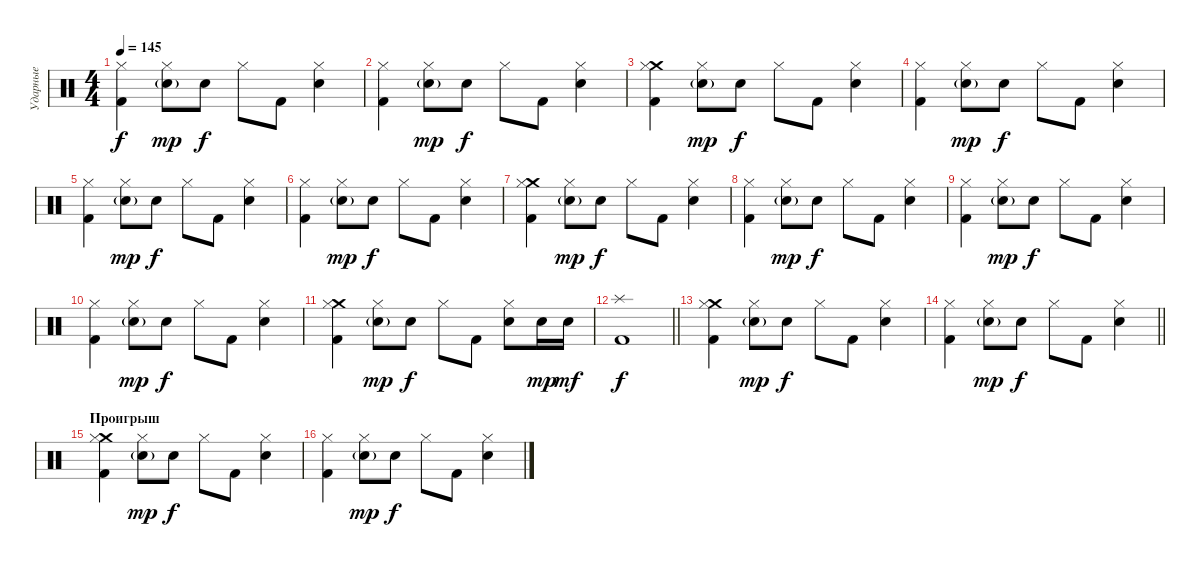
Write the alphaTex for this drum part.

\track ("Ударные" "Ударные") {instrument percussion}
\staff {score}
\articulation defaults
\ts (4 4)
\tempo 145
\clef neutral
\ks c
("Kick (hit) 2" "Hi-Hat (closed)").4{dy f} ("Electric Snare (hit)"{g} "Hi-Hat (closed)").8{dy mp} "Electric Snare (hit)".8{dy f} "Hi-Hat (closed)".8 "Kick (hit) 2".8 ("Electric Snare (hit)" "Hi-Hat (closed)").4 |
("Kick (hit) 2" "Hi-Hat (closed)").4 ("Electric Snare (hit)"{g} "Hi-Hat (closed)").8{dy mp} "Electric Snare (hit)".8{dy f} "Hi-Hat (closed)".8 "Kick (hit) 2".8 ("Electric Snare (hit)" "Hi-Hat (closed)").4 |
("Crash medium (hit)" "Kick (hit) 2" "Hi-Hat (closed)").4 ("Electric Snare (hit)"{g} "Hi-Hat (closed)").8{dy mp} "Electric Snare (hit)".8{dy f} "Hi-Hat (closed)".8 "Kick (hit) 2".8 ("Electric Snare (hit)" "Hi-Hat (closed)").4 |
("Kick (hit) 2" "Hi-Hat (closed)").4 ("Electric Snare (hit)"{g} "Hi-Hat (closed)").8{dy mp} "Electric Snare (hit)".8{dy f} "Hi-Hat (closed)".8 "Kick (hit) 2".8 ("Electric Snare (hit)" "Hi-Hat (closed)").4 |
("Kick (hit) 2" "Hi-Hat (closed)").4 ("Electric Snare (hit)"{g} "Hi-Hat (closed)").8{dy mp} "Electric Snare (hit)".8{dy f} "Hi-Hat (closed)".8 "Kick (hit) 2".8 ("Electric Snare (hit)" "Hi-Hat (closed)").4 |
("Kick (hit) 2" "Hi-Hat (closed)").4 ("Electric Snare (hit)"{g} "Hi-Hat (closed)").8{dy mp} "Electric Snare (hit)".8{dy f} "Hi-Hat (closed)".8 "Kick (hit) 2".8 ("Electric Snare (hit)" "Hi-Hat (closed)").4 |
("Crash medium (hit)" "Kick (hit) 2" "Hi-Hat (closed)").4 ("Electric Snare (hit)"{g} "Hi-Hat (closed)").8{dy mp} "Electric Snare (hit)".8{dy f} "Hi-Hat (closed)".8 "Kick (hit) 2".8 ("Electric Snare (hit)" "Hi-Hat (closed)").4 |
("Kick (hit) 2" "Hi-Hat (closed)").4 ("Electric Snare (hit)"{g} "Hi-Hat (closed)").8{dy mp} "Electric Snare (hit)".8{dy f} "Hi-Hat (closed)".8 "Kick (hit) 2".8 ("Electric Snare (hit)" "Hi-Hat (closed)").4 |
("Kick (hit) 2" "Hi-Hat (closed)").4 ("Electric Snare (hit)"{g} "Hi-Hat (closed)").8{dy mp} "Electric Snare (hit)".8{dy f} "Hi-Hat (closed)".8 "Kick (hit) 2".8 ("Electric Snare (hit)" "Hi-Hat (closed)").4 |
("Kick (hit) 2" "Hi-Hat (closed)").4 ("Electric Snare (hit)"{g} "Hi-Hat (closed)").8{dy mp} "Electric Snare (hit)".8{dy f} "Hi-Hat (closed)".8 "Kick (hit) 2".8 ("Electric Snare (hit)" "Hi-Hat (closed)").4 |
("Crash medium (hit)" "Kick (hit) 2" "Hi-Hat (closed)").4 ("Electric Snare (hit)"{g} "Hi-Hat (closed)").8{dy mp} "Electric Snare (hit)".8{dy f} "Hi-Hat (closed)".8 "Kick (hit) 2".8 ("Electric Snare (hit)" "Hi-Hat (closed)").8 "Electric Snare (hit)".16{dy mp} "Electric Snare (hit)".16{dy mf} |
\barLineRight lightlight
("Splash (hit)" "Kick (hit) 2").1{dy f} |
\section ("" "")
("Crash medium (hit)" "Kick (hit) 2" "Hi-Hat (closed)").4 ("Electric Snare (hit)"{g} "Hi-Hat (closed)").8{dy mp} "Electric Snare (hit)".8{dy f} "Hi-Hat (closed)".8 "Kick (hit) 2".8 ("Electric Snare (hit)" "Hi-Hat (closed)").4 |
\barLineRight lightlight
("Kick (hit) 2" "Hi-Hat (closed)").4 ("Electric Snare (hit)"{g} "Hi-Hat (closed)").8{dy mp} "Electric Snare (hit)".8{dy f} "Hi-Hat (closed)".8 "Kick (hit) 2".8 ("Electric Snare (hit)" "Hi-Hat (closed)").4 |
\section ("" "Проигрыш")
("Crash medium (hit)" "Kick (hit) 2" "Hi-Hat (closed)").4 ("Electric Snare (hit)"{g} "Hi-Hat (closed)").8{dy mp} "Electric Snare (hit)".8{dy f} "Hi-Hat (closed)".8 "Kick (hit) 2".8 ("Electric Snare (hit)" "Hi-Hat (closed)").4 |
("Kick (hit) 2" "Hi-Hat (closed)").4 ("Electric Snare (hit)"{g} "Hi-Hat (closed)").8{dy mp} "Electric Snare (hit)".8{dy f} "Hi-Hat (closed)".8 "Kick (hit) 2".8 ("Electric Snare (hit)" "Hi-Hat (closed)").4
